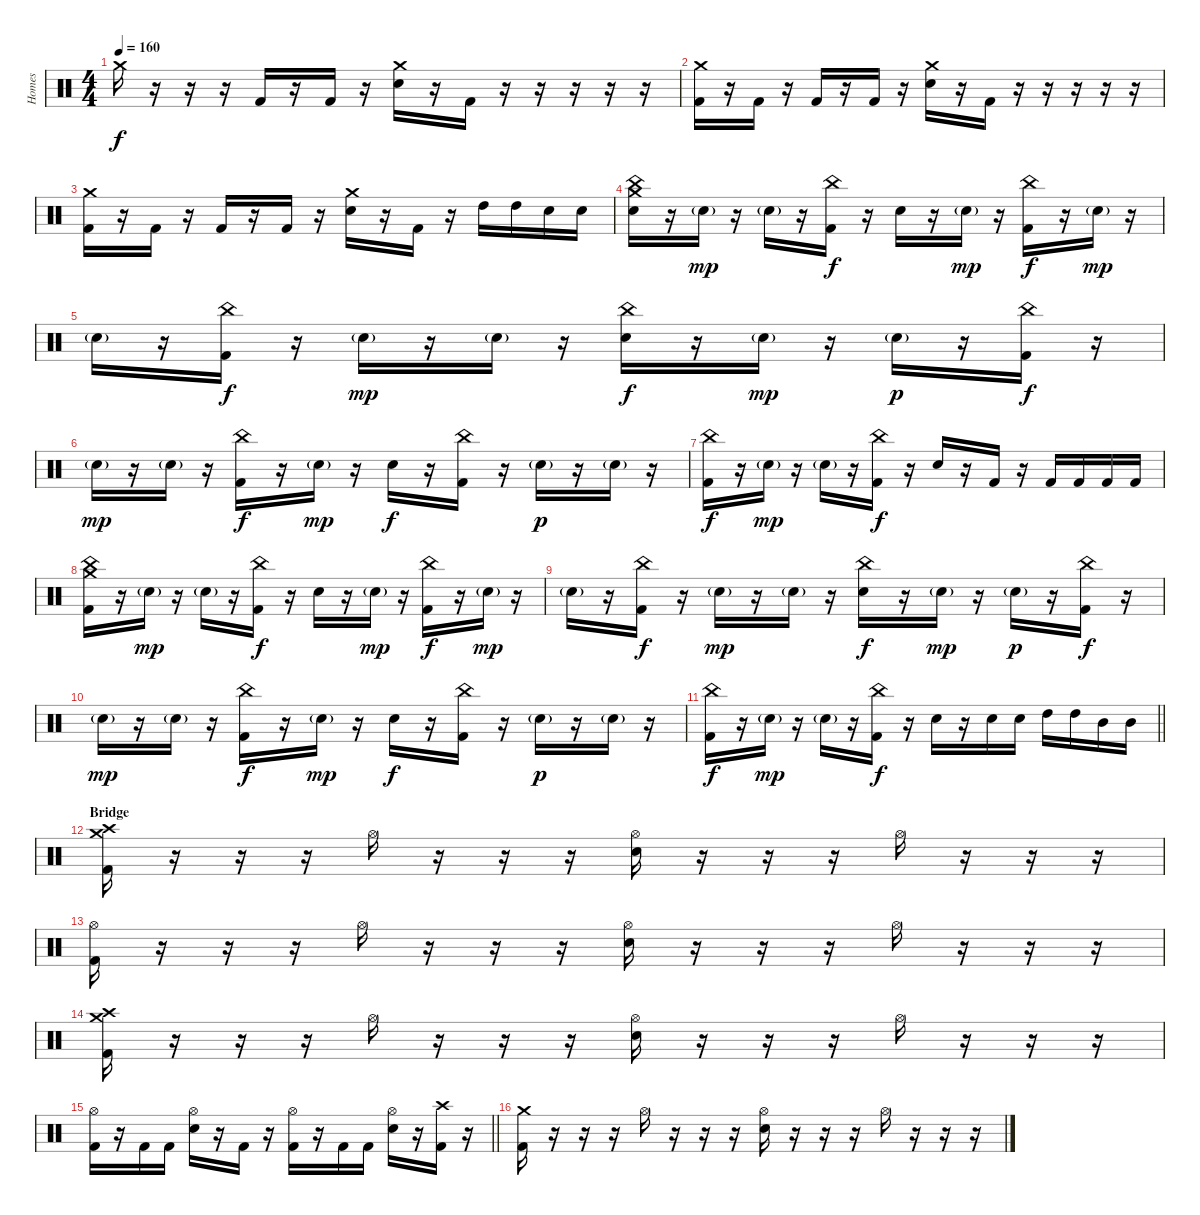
\track ("Homes" "Homes") {instrument percussion}
\staff {score}
\articulation defaults
\ts (4 4)
\tempo 160
\clef neutral
\ks c "Crash medium (hit)".16{dy f}
r.16 r.16 r.16 "Kick (hit) 2".16 r.16 "Kick (hit) 2".16 r.16 ("Crash medium (hit)" "Electric Snare (hit)").16 r.16 "Kick (hit) 2".16 r.16 r.16 r.16 r.16 r.16 |
("Crash medium (hit)" "Kick (hit) 2").16 r.16 "Kick (hit) 2".16 r.16 "Kick (hit) 2".16 r.16 "Kick (hit) 2".16 r.16 ("Crash medium (hit)" "Electric Snare (hit)").16 r.16 "Kick (hit) 2".16 r.16 r.16 r.16 r.16 r.16 |
("Crash medium (hit)" "Kick (hit) 2").16 r.16 "Kick (hit) 2".16 r.16 "Kick (hit) 2".16 r.16 "Kick (hit) 2".16 r.16 ("Crash medium (hit)" "Electric Snare (hit)").16 r.16 "Kick (hit) 2".16 r.16 "High Tom (hit)".16 "High Tom (hit)".16 "Electric Snare (hit)".16 "Electric Snare (hit)".16 |
("Crash medium (hit)" "China (hit)" "Electric Snare (hit)").16 r.16 "Electric Snare (hit)"{g}.16{dy mp} r.16 "Electric Snare (hit)"{g}.16 r.16 ("China (hit)" "Kick (hit) 2").16{dy f} r.16 "Electric Snare (hit)".16 r.16 "Electric Snare (hit)"{g}.16{dy mp} r.16 ("China (hit)" "Kick (hit) 2").16{dy f} r.16 "Electric Snare (hit)"{g}.16{dy mp} r.16 |
"Electric Snare (hit)"{g}.16 r.16 ("China (hit)" "Kick (hit) 2").16{dy f} r.16 "Electric Snare (hit)"{g}.16{dy mp} r.16 "Electric Snare (hit)"{g}.16 r.16 ("China (hit)" "Electric Snare (hit)").16{dy f} r.16 "Electric Snare (hit)"{g}.16{dy mp} r.16 "Electric Snare (hit)"{g}.16{dy p} r.16 ("China (hit)" "Kick (hit) 2").16{dy f} r.16 |
"Electric Snare (hit)"{g}.16{dy mp} r.16 "Electric Snare (hit)"{g}.16 r.16 ("China (hit)" "Kick (hit) 2").16{dy f} r.16 "Electric Snare (hit)"{g}.16{dy mp} r.16 "Electric Snare (hit)".16{dy f} r.16 ("China (hit)" "Kick (hit) 2").16 r.16 "Electric Snare (hit)"{g}.16{dy p} r.16 "Electric Snare (hit)"{g}.16 r.16 |
("China (hit)" "Kick (hit) 2").16{dy f} r.16 "Electric Snare (hit)"{g}.16{dy mp} r.16 "Electric Snare (hit)"{g}.16 r.16 ("China (hit)" "Kick (hit) 2").16{dy f} r.16 "Electric Snare (hit)".16 r.16 "Kick (hit) 2".16 r.16 "Kick (hit) 2".16 "Kick (hit) 2".16 "Kick (hit) 2".16 "Kick (hit) 2".16 |
("Crash medium (hit)" "China (hit)" "Kick (hit) 2").16 r.16 "Electric Snare (hit)"{g}.16{dy mp} r.16 "Electric Snare (hit)"{g}.16 r.16 ("China (hit)" "Kick (hit) 2").16{dy f} r.16 "Electric Snare (hit)".16 r.16 "Electric Snare (hit)"{g}.16{dy mp} r.16 ("China (hit)" "Kick (hit) 2").16{dy f} r.16 "Electric Snare (hit)"{g}.16{dy mp} r.16 |
"Electric Snare (hit)"{g}.16 r.16 ("China (hit)" "Kick (hit) 2").16{dy f} r.16 "Electric Snare (hit)"{g}.16{dy mp} r.16 "Electric Snare (hit)"{g}.16 r.16 ("China (hit)" "Electric Snare (hit)").16{dy f} r.16 "Electric Snare (hit)"{g}.16{dy mp} r.16 "Electric Snare (hit)"{g}.16{dy p} r.16 ("China (hit)" "Kick (hit) 2").16{dy f} r.16 |
"Electric Snare (hit)"{g}.16{dy mp} r.16 "Electric Snare (hit)"{g}.16 r.16 ("China (hit)" "Kick (hit) 2").16{dy f} r.16 "Electric Snare (hit)"{g}.16{dy mp} r.16 "Electric Snare (hit)".16{dy f} r.16 ("China (hit)" "Kick (hit) 2").16 r.16 "Electric Snare (hit)"{g}.16{dy p} r.16 "Electric Snare (hit)"{g}.16 r.16 |
\barLineRight lightlight
("China (hit)" "Kick (hit) 2").16{dy f} r.16 "Electric Snare (hit)"{g}.16{dy mp} r.16 "Electric Snare (hit)"{g}.16 r.16 ("China (hit)" "Kick (hit) 2").16{dy f} r.16 "Electric Snare (hit)".16 r.16 "Electric Snare (hit)".16 "Electric Snare (hit)".16 "High Tom (hit)".16 "High Tom (hit)".16 "Mid Tom (hit)".16 "Mid Tom (hit)".16 |
\section ("" "Bridge")
("Crash high (hit)" "Crash medium (hit)" "Kick (hit) 2").16 r.16 r.16 r.16 "Hi-Hat (open)".16 r.16 r.16 r.16 ("Hi-Hat (open)" "Electric Snare (hit)").16 r.16 r.16 r.16 "Hi-Hat (open)".16 r.16 r.16 r.16 |
("Hi-Hat (open)" "Kick (hit) 2").16 r.16 r.16 r.16 "Hi-Hat (open)".16 r.16 r.16 r.16 ("Hi-Hat (open)" "Electric Snare (hit)").16 r.16 r.16 r.16 "Hi-Hat (open)".16 r.16 r.16 r.16 |
("Crash high (hit)" "Crash medium (hit)" "Kick (hit) 2").16 r.16 r.16 r.16 "Hi-Hat (open)".16 r.16 r.16 r.16 ("Hi-Hat (open)" "Electric Snare (hit)").16 r.16 r.16 r.16 "Hi-Hat (open)".16 r.16 r.16 r.16 |
\barLineRight lightlight
("Hi-Hat (open)" "Kick (hit) 2").16 r.16 "Kick (hit) 2".16 "Kick (hit) 2".16 ("Hi-Hat (open)" "Electric Snare (hit)").16 r.16 "Kick (hit) 2".16 r.16 ("Hi-Hat (open)" "Kick (hit) 2").16 r.16 "Kick (hit) 2".16 "Kick (hit) 2".16 ("Hi-Hat (open)" "Electric Snare (hit)").16 r.16 ("Crash high (hit)" "Kick (hit) 2").16 r.16 |
("Crash medium (hit)" "Kick (hit) 2").16 r.16 r.16 r.16 "Hi-Hat (open)".16 r.16 r.16 r.16 ("Hi-Hat (open)" "Electric Snare (hit)").16 r.16 r.16 r.16 "Hi-Hat (open)".16 r.16 r.16 r.16
